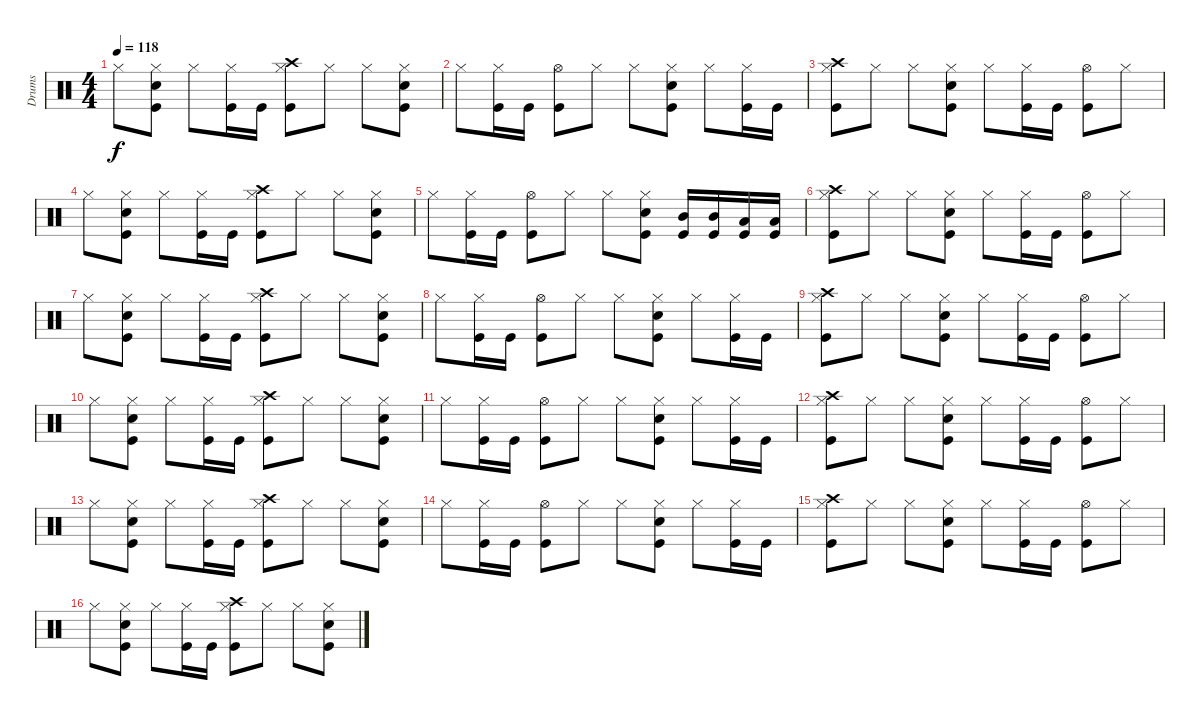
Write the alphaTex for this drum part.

\track ("Drums" "Drums") {instrument percussion}
\staff {score}
\articulation defaults
\ts (4 4)
\tempo 118
\clef neutral
\ks c "Hi-Hat (closed)".8{dy f}
("Kick (hit)" "Snare (hit) 2" "Hi-Hat (closed)").8 "Hi-Hat (closed)".8 ("Kick (hit)" "Hi-Hat (closed)").16 "Kick (hit)".16 ("Kick (hit)" "Hi-Hat (closed)" "Crash high (hit)").8 "Hi-Hat (closed)".8 "Hi-Hat (closed)".8 ("Kick (hit)" "Snare (hit) 2" "Hi-Hat (closed)").8 |
"Hi-Hat (closed)".8 ("Kick (hit)" "Hi-Hat (closed)").16 "Kick (hit)".16 ("Kick (hit)" "Hi-Hat (open)").8 "Hi-Hat (closed)".8 "Hi-Hat (closed)".8 ("Kick (hit)" "Snare (hit) 2" "Hi-Hat (closed)").8 "Hi-Hat (closed)".8 ("Kick (hit)" "Hi-Hat (closed)").16 "Kick (hit)".16 |
("Kick (hit)" "Hi-Hat (closed)" "Crash high (hit)").8 "Hi-Hat (closed)".8 "Hi-Hat (closed)".8 ("Kick (hit)" "Snare (hit) 2" "Hi-Hat (closed)").8 "Hi-Hat (closed)".8 ("Kick (hit)" "Hi-Hat (closed)").16 "Kick (hit)".16 ("Kick (hit)" "Hi-Hat (open)").8 "Hi-Hat (closed)".8 |
"Hi-Hat (closed)".8 ("Kick (hit)" "Snare (hit) 2" "Hi-Hat (closed)").8 "Hi-Hat (closed)".8 ("Kick (hit)" "Hi-Hat (closed)").16 "Kick (hit)".16 ("Kick (hit)" "Hi-Hat (closed)" "Crash high (hit)").8 "Hi-Hat (closed)".8 "Hi-Hat (closed)".8 ("Kick (hit)" "Snare (hit) 2" "Hi-Hat (closed)").8 |
"Hi-Hat (closed)".8 ("Kick (hit)" "Hi-Hat (closed)").16 "Kick (hit)".16 ("Kick (hit)" "Hi-Hat (open)").8 "Hi-Hat (closed)".8 "Hi-Hat (closed)".8 ("Kick (hit)" "Snare (hit) 2" "Hi-Hat (closed)").8 ("Kick (hit)" "Mid Tom (hit)").16 ("Kick (hit)" "Mid Tom (hit)").16 ("Kick (hit)" "Low Tom (hit)").16 ("Kick (hit)" "Low Tom (hit)").16 |
("Kick (hit)" "Hi-Hat (closed)" "Crash high (hit)").8 "Hi-Hat (closed)".8 "Hi-Hat (closed)".8 ("Kick (hit)" "Snare (hit) 2" "Hi-Hat (closed)").8 "Hi-Hat (closed)".8 ("Kick (hit)" "Hi-Hat (closed)").16 "Kick (hit)".16 ("Kick (hit)" "Hi-Hat (open)").8 "Hi-Hat (closed)".8 |
"Hi-Hat (closed)".8 ("Kick (hit)" "Snare (hit) 2" "Hi-Hat (closed)").8 "Hi-Hat (closed)".8 ("Kick (hit)" "Hi-Hat (closed)").16 "Kick (hit)".16 ("Kick (hit)" "Hi-Hat (closed)" "Crash high (hit)").8 "Hi-Hat (closed)".8 "Hi-Hat (closed)".8 ("Kick (hit)" "Snare (hit) 2" "Hi-Hat (closed)").8 |
"Hi-Hat (closed)".8 ("Kick (hit)" "Hi-Hat (closed)").16 "Kick (hit)".16 ("Kick (hit)" "Hi-Hat (open)").8 "Hi-Hat (closed)".8 "Hi-Hat (closed)".8 ("Kick (hit)" "Snare (hit) 2" "Hi-Hat (closed)").8 "Hi-Hat (closed)".8 ("Kick (hit)" "Hi-Hat (closed)").16 "Kick (hit)".16 |
("Kick (hit)" "Hi-Hat (closed)" "Crash high (hit)").8 "Hi-Hat (closed)".8 "Hi-Hat (closed)".8 ("Kick (hit)" "Snare (hit) 2" "Hi-Hat (closed)").8 "Hi-Hat (closed)".8 ("Kick (hit)" "Hi-Hat (closed)").16 "Kick (hit)".16 ("Kick (hit)" "Hi-Hat (open)").8 "Hi-Hat (closed)".8 |
"Hi-Hat (closed)".8 ("Kick (hit)" "Snare (hit) 2" "Hi-Hat (closed)").8 "Hi-Hat (closed)".8 ("Kick (hit)" "Hi-Hat (closed)").16 "Kick (hit)".16 ("Kick (hit)" "Hi-Hat (closed)" "Crash high (hit)").8 "Hi-Hat (closed)".8 "Hi-Hat (closed)".8 ("Kick (hit)" "Snare (hit) 2" "Hi-Hat (closed)").8 |
"Hi-Hat (closed)".8 ("Kick (hit)" "Hi-Hat (closed)").16 "Kick (hit)".16 ("Kick (hit)" "Hi-Hat (open)").8 "Hi-Hat (closed)".8 "Hi-Hat (closed)".8 ("Kick (hit)" "Snare (hit) 2" "Hi-Hat (closed)").8 "Hi-Hat (closed)".8 ("Kick (hit)" "Hi-Hat (closed)").16 "Kick (hit)".16 |
("Kick (hit)" "Hi-Hat (closed)" "Crash high (hit)").8 "Hi-Hat (closed)".8 "Hi-Hat (closed)".8 ("Kick (hit)" "Snare (hit) 2" "Hi-Hat (closed)").8 "Hi-Hat (closed)".8 ("Kick (hit)" "Hi-Hat (closed)").16 "Kick (hit)".16 ("Kick (hit)" "Hi-Hat (open)").8 "Hi-Hat (closed)".8 |
"Hi-Hat (closed)".8 ("Kick (hit)" "Snare (hit) 2" "Hi-Hat (closed)").8 "Hi-Hat (closed)".8 ("Kick (hit)" "Hi-Hat (closed)").16 "Kick (hit)".16 ("Kick (hit)" "Hi-Hat (closed)" "Crash high (hit)").8 "Hi-Hat (closed)".8 "Hi-Hat (closed)".8 ("Kick (hit)" "Snare (hit) 2" "Hi-Hat (closed)").8 |
"Hi-Hat (closed)".8 ("Kick (hit)" "Hi-Hat (closed)").16 "Kick (hit)".16 ("Kick (hit)" "Hi-Hat (open)").8 "Hi-Hat (closed)".8 "Hi-Hat (closed)".8 ("Kick (hit)" "Snare (hit) 2" "Hi-Hat (closed)").8 "Hi-Hat (closed)".8 ("Kick (hit)" "Hi-Hat (closed)").16 "Kick (hit)".16 |
("Kick (hit)" "Hi-Hat (closed)" "Crash high (hit)").8 "Hi-Hat (closed)".8 "Hi-Hat (closed)".8 ("Kick (hit)" "Snare (hit) 2" "Hi-Hat (closed)").8 "Hi-Hat (closed)".8 ("Kick (hit)" "Hi-Hat (closed)").16 "Kick (hit)".16 ("Kick (hit)" "Hi-Hat (open)").8 "Hi-Hat (closed)".8 |
"Hi-Hat (closed)".8 ("Kick (hit)" "Snare (hit) 2" "Hi-Hat (closed)").8 "Hi-Hat (closed)".8 ("Kick (hit)" "Hi-Hat (closed)").16 "Kick (hit)".16 ("Kick (hit)" "Hi-Hat (closed)" "Crash high (hit)").8 "Hi-Hat (closed)".8 "Hi-Hat (closed)".8 ("Kick (hit)" "Snare (hit) 2" "Hi-Hat (closed)").8
